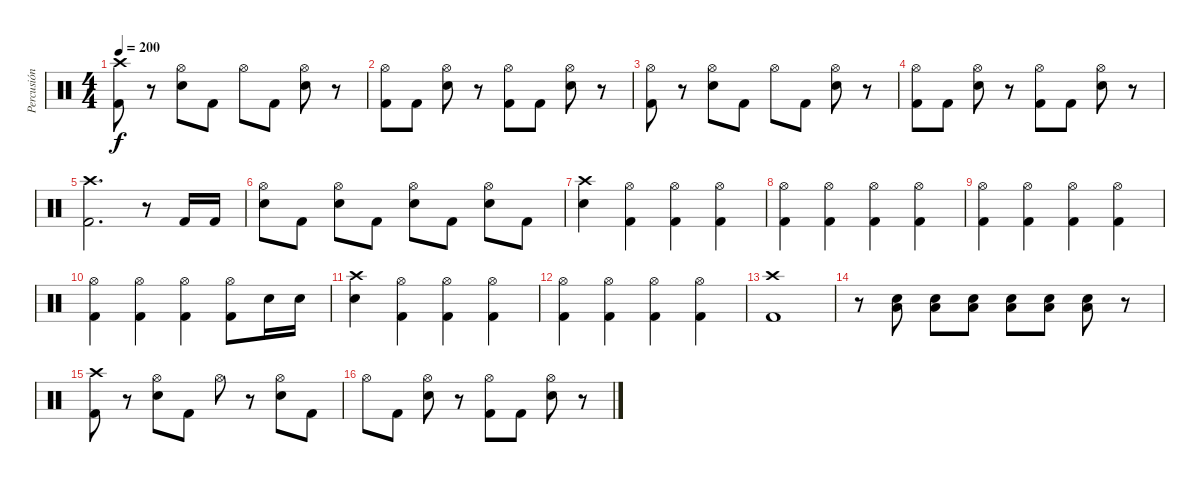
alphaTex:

\track ("Percusión" "Percusión") {instrument percussion}
\staff {score}
\articulation defaults
\ts (4 4)
\tempo 200
\clef neutral
\ks c
("Kick (hit) 2" "Crash high (hit)").8{dy f} r.8 ("Snare (hit) 2" "Hi-Hat (open)").8 "Kick (hit) 2".8 "Hi-Hat (open)".8 "Kick (hit) 2".8 ("Snare (hit) 2" "Hi-Hat (open)").8 r.8 |
("Kick (hit) 2" "Hi-Hat (open)").8 "Kick (hit) 2".8 ("Snare (hit) 2" "Hi-Hat (open)").8 r.8 ("Kick (hit) 2" "Hi-Hat (open)").8 "Kick (hit) 2".8 ("Snare (hit) 2" "Hi-Hat (open)").8 r.8 |
("Kick (hit) 2" "Hi-Hat (open)").8 r.8 ("Snare (hit) 2" "Hi-Hat (open)").8 "Kick (hit) 2".8 "Hi-Hat (open)".8 "Kick (hit) 2".8 ("Snare (hit) 2" "Hi-Hat (open)").8 r.8 |
("Kick (hit) 2" "Hi-Hat (open)").8 "Kick (hit) 2".8 ("Snare (hit) 2" "Hi-Hat (open)").8 r.8 ("Kick (hit) 2" "Hi-Hat (open)").8 "Kick (hit) 2".8 ("Snare (hit) 2" "Hi-Hat (open)").8 r.8 |
("Kick (hit) 2" "Crash high (hit)").2{d} r.8 "Kick (hit) 2".16 "Kick (hit) 2".16 |
("Snare (hit) 2" "Hi-Hat (open)").8 "Kick (hit) 2".8 ("Snare (hit) 2" "Hi-Hat (open)").8 "Kick (hit) 2".8 ("Snare (hit) 2" "Hi-Hat (open)").8 "Kick (hit) 2".8 ("Snare (hit) 2" "Hi-Hat (open)").8 "Kick (hit) 2".8 |
("Snare (hit) 2" "Crash high (hit)").4 ("Kick (hit) 2" "Hi-Hat (open)").4 ("Kick (hit) 2" "Hi-Hat (open)").4 ("Kick (hit) 2" "Hi-Hat (open)").4 |
("Kick (hit) 2" "Hi-Hat (open)").4 ("Kick (hit) 2" "Hi-Hat (open)").4 ("Kick (hit) 2" "Hi-Hat (open)").4 ("Kick (hit) 2" "Hi-Hat (open)").4 |
("Kick (hit) 2" "Hi-Hat (open)").4 ("Kick (hit) 2" "Hi-Hat (open)").4 ("Kick (hit) 2" "Hi-Hat (open)").4 ("Kick (hit) 2" "Hi-Hat (open)").4 |
("Kick (hit) 2" "Hi-Hat (open)").4 ("Kick (hit) 2" "Hi-Hat (open)").4 ("Kick (hit) 2" "Hi-Hat (open)").4 ("Kick (hit) 2" "Hi-Hat (open)").8 "Snare (hit) 2".16 "Snare (hit) 2".16 |
("Snare (hit) 2" "Crash high (hit)").4 ("Kick (hit) 2" "Hi-Hat (open)").4 ("Kick (hit) 2" "Hi-Hat (open)").4 ("Kick (hit) 2" "Hi-Hat (open)").4 |
("Kick (hit) 2" "Hi-Hat (open)").4 ("Kick (hit) 2" "Hi-Hat (open)").4 ("Kick (hit) 2" "Hi-Hat (open)").4 ("Kick (hit) 2" "Hi-Hat (open)").4 |
("Kick (hit) 2" "Crash high (hit)").1 |
r.8 ("Low Tom (hit)" "Snare (hit) 2").8 ("Low Tom (hit)" "Snare (hit) 2").8 ("Low Tom (hit)" "Snare (hit) 2").8 ("Low Tom (hit)" "Snare (hit) 2").8 ("Low Tom (hit)" "Snare (hit) 2").8 ("Low Tom (hit)" "Snare (hit) 2").8 r.8 |
("Kick (hit) 2" "Crash high (hit)").8 r.8 ("Snare (hit) 2" "Hi-Hat (open)").8 "Kick (hit) 2".8 "Hi-Hat (open)".8 r.8 ("Snare (hit) 2" "Hi-Hat (open)").8 "Kick (hit) 2".8 |
"Hi-Hat (open)".8 "Kick (hit) 2".8 ("Snare (hit) 2" "Hi-Hat (open)").8 r.8 ("Kick (hit) 2" "Hi-Hat (open)").8 "Kick (hit) 2".8 ("Snare (hit) 2" "Hi-Hat (open)").8 r.8
